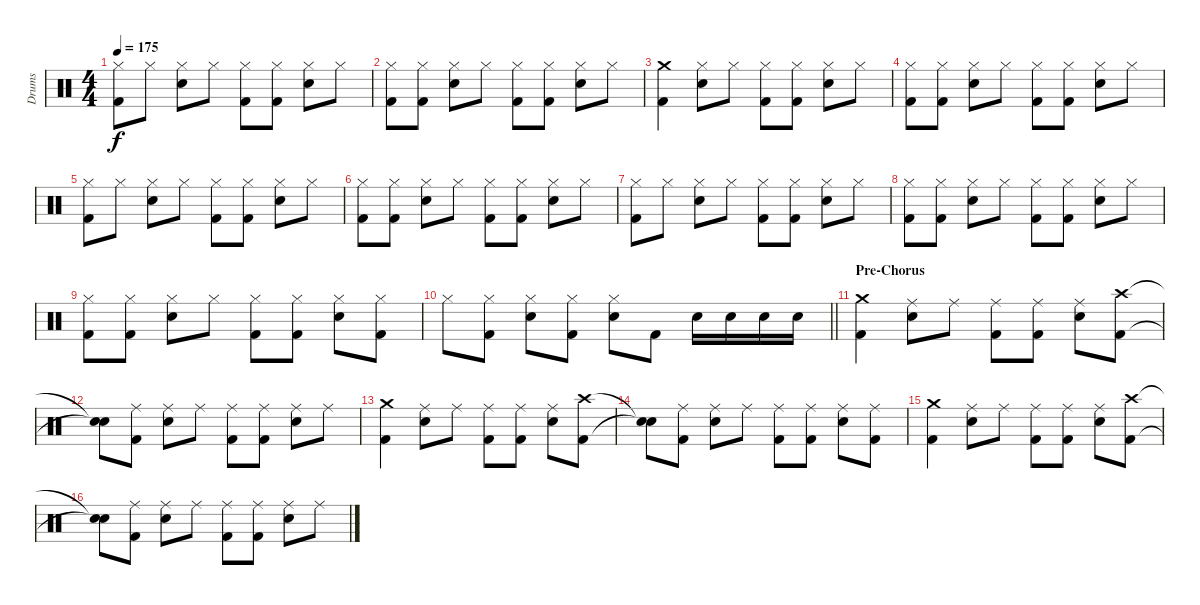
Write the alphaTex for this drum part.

\track ("Drums" "Drums") {instrument percussion}
\staff {score}
\articulation defaults
\ts (4 4)
\tempo 175
\clef neutral
\ks c
("Hi-Hat (closed)" "Kick (hit) 2").8{dy f} "Hi-Hat (closed)".8 ("Hi-Hat (closed)" "Electric Snare (hit)").8 "Hi-Hat (closed)".8 ("Hi-Hat (closed)" "Kick (hit) 2").8 ("Hi-Hat (closed)" "Kick (hit) 2").8 ("Hi-Hat (closed)" "Electric Snare (hit)").8 "Hi-Hat (closed)".8 |
("Hi-Hat (closed)" "Kick (hit) 2").8 ("Hi-Hat (closed)" "Kick (hit) 2").8 ("Hi-Hat (closed)" "Electric Snare (hit)").8 "Hi-Hat (closed)".8 ("Hi-Hat (closed)" "Kick (hit) 2").8 ("Hi-Hat (closed)" "Kick (hit) 2").8 ("Hi-Hat (closed)" "Electric Snare (hit)").8 "Hi-Hat (closed)".8 |
("Crash medium (hit)" "Kick (hit) 2").4 ("Hi-Hat (closed)" "Electric Snare (hit)").8 "Hi-Hat (closed)".8 ("Hi-Hat (closed)" "Kick (hit) 2").8 ("Hi-Hat (closed)" "Kick (hit) 2").8 ("Hi-Hat (closed)" "Electric Snare (hit)").8 "Hi-Hat (closed)".8 |
("Hi-Hat (closed)" "Kick (hit) 2").8 ("Hi-Hat (closed)" "Kick (hit) 2").8 ("Hi-Hat (closed)" "Electric Snare (hit)").8 "Hi-Hat (closed)".8 ("Hi-Hat (closed)" "Kick (hit) 2").8 ("Hi-Hat (closed)" "Kick (hit) 2").8 ("Hi-Hat (closed)" "Electric Snare (hit)").8 "Hi-Hat (closed)".8 |
("Hi-Hat (closed)" "Kick (hit) 2").8 "Hi-Hat (closed)".8 ("Hi-Hat (closed)" "Electric Snare (hit)").8 "Hi-Hat (closed)".8 ("Hi-Hat (closed)" "Kick (hit) 2").8 ("Hi-Hat (closed)" "Kick (hit) 2").8 ("Hi-Hat (closed)" "Electric Snare (hit)").8 "Hi-Hat (closed)".8 |
("Hi-Hat (closed)" "Kick (hit) 2").8 ("Hi-Hat (closed)" "Kick (hit) 2").8 ("Hi-Hat (closed)" "Electric Snare (hit)").8 "Hi-Hat (closed)".8 ("Hi-Hat (closed)" "Kick (hit) 2").8 ("Hi-Hat (closed)" "Kick (hit) 2").8 ("Hi-Hat (closed)" "Electric Snare (hit)").8 "Hi-Hat (closed)".8 |
("Hi-Hat (closed)" "Kick (hit) 2").8 "Hi-Hat (closed)".8 ("Hi-Hat (closed)" "Electric Snare (hit)").8 "Hi-Hat (closed)".8 ("Hi-Hat (closed)" "Kick (hit) 2").8 ("Hi-Hat (closed)" "Kick (hit) 2").8 ("Hi-Hat (closed)" "Electric Snare (hit)").8 "Hi-Hat (closed)".8 |
("Hi-Hat (closed)" "Kick (hit) 2").8 ("Hi-Hat (closed)" "Kick (hit) 2").8 ("Hi-Hat (closed)" "Electric Snare (hit)").8 "Hi-Hat (closed)".8 ("Hi-Hat (closed)" "Kick (hit) 2").8 ("Hi-Hat (closed)" "Kick (hit) 2").8 ("Hi-Hat (closed)" "Electric Snare (hit)").8 "Hi-Hat (closed)".8 |
("Hi-Hat (closed)" "Kick (hit) 2").8 ("Hi-Hat (closed)" "Kick (hit) 2").8 ("Hi-Hat (closed)" "Electric Snare (hit)").8 "Hi-Hat (closed)".8 ("Hi-Hat (closed)" "Kick (hit) 2").8 ("Hi-Hat (closed)" "Kick (hit) 2").8 ("Hi-Hat (closed)" "Electric Snare (hit)").8 ("Hi-Hat (closed)" "Kick (hit) 2").8 |
\barLineRight lightlight "Hi-Hat (closed)".8
("Hi-Hat (closed)" "Kick (hit) 2").8 ("Hi-Hat (closed)" "Electric Snare (hit)").8 ("Hi-Hat (closed)" "Kick (hit) 2").8 ("Hi-Hat (closed)" "Electric Snare (hit)").8 "Kick (hit) 2".8 "Electric Snare (hit)".16 "Electric Snare (hit)".16 "Electric Snare (hit)".16 "Electric Snare (hit)".16 |
\section ("" "Pre-Chorus")
("Crash medium (hit)" "Kick (hit) 2").4 ("Ride (middle)" "Electric Snare (hit)").8 "Ride (middle)".8 ("Ride (middle)" "Kick (hit) 2").8 ("Ride (middle)" "Kick (hit) 2").8 ("Ride (middle)" "Electric Snare (hit)").8 ("Crash high (hit)" "Kick (hit) 2").8 |
("Snare (hit)"{t} "Snare (hit)"{t}).8 ("Ride (middle)" "Kick (hit) 2").8 ("Ride (middle)" "Electric Snare (hit)").8 "Ride (middle)".8 ("Ride (middle)" "Kick (hit) 2").8 ("Ride (middle)" "Kick (hit) 2").8 ("Ride (middle)" "Electric Snare (hit)").8 "Ride (middle)".8 |
("Crash medium (hit)" "Kick (hit) 2").4 ("Ride (middle)" "Electric Snare (hit)").8 "Ride (middle)".8 ("Ride (middle)" "Kick (hit) 2").8 ("Ride (middle)" "Kick (hit) 2").8 ("Ride (middle)" "Electric Snare (hit)").8 ("Crash high (hit)" "Kick (hit) 2").8 |
("Snare (hit)"{t} "Snare (hit)"{t}).8 ("Ride (middle)" "Kick (hit) 2").8 ("Ride (middle)" "Electric Snare (hit)").8 "Ride (middle)".8 ("Ride (middle)" "Kick (hit) 2").8 ("Ride (middle)" "Kick (hit) 2").8 ("Ride (middle)" "Electric Snare (hit)").8 ("Ride (middle)" "Kick (hit) 2").8 |
("Crash medium (hit)" "Kick (hit) 2").4 ("Ride (middle)" "Electric Snare (hit)").8 "Ride (middle)".8 ("Ride (middle)" "Kick (hit) 2").8 ("Ride (middle)" "Kick (hit) 2").8 ("Ride (middle)" "Electric Snare (hit)").8 ("Crash high (hit)" "Kick (hit) 2").8 |
("Snare (hit)"{t} "Snare (hit)"{t}).8 ("Ride (middle)" "Kick (hit) 2").8 ("Ride (middle)" "Electric Snare (hit)").8 "Ride (middle)".8 ("Ride (middle)" "Kick (hit) 2").8 ("Ride (middle)" "Kick (hit) 2").8 ("Ride (middle)" "Electric Snare (hit)").8 "Ride (middle)".8
